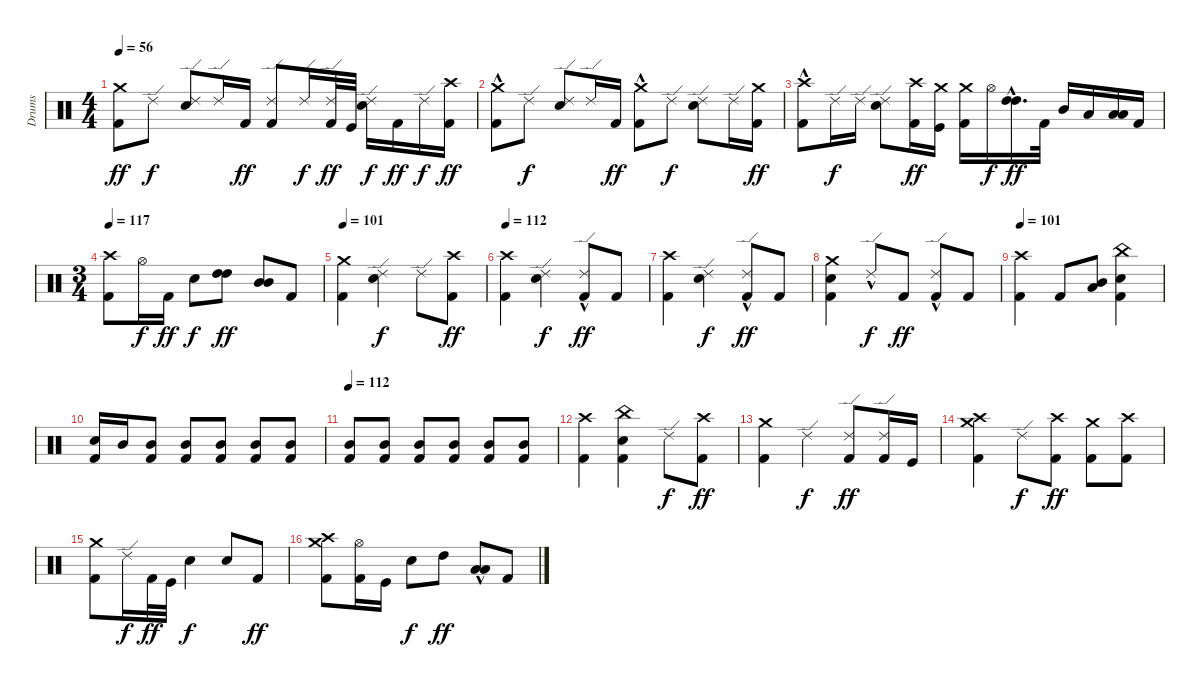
\track ("Drums" "Drums") {instrument percussion}
\staff {score}
\articulation defaults
\ts (4 4)
\tempo 56
\clef neutral
\ks c
("Crash medium (hit)" "Kick (hit) 2").8{dy ff} "Ride (edge) 2".8{dy f} ("Ride (edge) 2" "Electric Snare (hit)").8 "Ride (edge) 2".16 "Kick (hit) 2".16{dy ff} ("Ride (edge) 2" "Kick (hit) 2").8 "Ride (edge) 2".16{dy f} ("Ride (edge) 2" "Kick (hit) 2").32{dy ff} "Kick (hit)".32 ("Ride (edge) 2" "Electric Snare (hit)").16{dy f} "Kick (hit) 2".16{dy ff} "Ride (edge) 2".16{dy f} ("Crash high (hit)" "Kick (hit) 2").16{dy ff} |
("Crash medium (hit)"{hac} "Kick (hit) 2").8 "Ride (edge) 2".8{dy f} ("Ride (edge) 2" "Electric Snare (hit)").8 "Ride (edge) 2".16 "Kick (hit) 2".16{dy ff} ("Crash medium (hit)"{hac} "Kick (hit) 2").8 "Ride (edge) 2".8{dy f} ("Ride (edge) 2" "Electric Snare (hit)").8 "Ride (edge) 2".16 ("Crash medium (hit)" "Kick (hit) 2").16{dy ff} |
("Crash high (hit)"{hac} "Kick (hit) 2").8 "Ride (edge) 2".16{dy f} "Ride (edge) 2".16 ("Ride (edge) 2" "Electric Snare (hit)").8 ("Crash high (hit)" "Kick (hit) 2").16{dy ff} ("Crash medium (hit)" "Kick (hit)").16 ("Crash medium (hit)" "Kick (hit) 2").16 "Hi-Hat (open)".16{dy f} ("High Tom (hit)"{hac} "High Tom (hit)"{hac}).16{d dy ff} "Kick (hit) 2".32 "Mid Tom (hit)".16 "Low Tom (hit)".16 ("Low Tom (hit)" "Low Tom (hit)").16 "Kick (hit) 2".16 |
\ts (3 4)
\tempo 117
("Crash high (hit)" "Kick (hit) 2").8 "Hi-Hat (open)".16{dy f} "Kick (hit) 2".16{dy ff} "Electric Snare (hit)".8{dy f} ("High Tom (hit)" "High Tom (hit)").8{dy ff} ("Mid Tom (hit)" "Mid Tom (hit)").8 "Kick (hit) 2".8 |
\tempo 101
("Crash medium (hit)" "Kick (hit) 2").4 ("Ride (edge) 2" "Electric Snare (hit)").4{dy f} "Ride (edge) 2".8 ("Crash high (hit)" "Kick (hit) 2").8{dy ff} |
\tempo 112
("Crash high (hit)" "Kick (hit) 2").4 ("Ride (edge) 2" "Electric Snare (hit)").4{dy f} ("Ride (edge) 2"{hac} "Kick (hit) 2").8{dy ff} "Kick (hit) 2".8 |
("Crash high (hit)" "Kick (hit) 2").4 ("Ride (edge) 2" "Electric Snare (hit)").4{dy f} ("Ride (edge) 2"{hac} "Kick (hit) 2").8{dy ff} "Kick (hit) 2".8 |
("Crash medium (hit)" "Electric Snare (hit)" "Kick (hit) 2").4 "Ride (edge) 2"{hac}.8{dy f} "Kick (hit) 2".8{dy ff} ("Ride (edge) 2"{hac} "Kick (hit) 2").8 "Kick (hit) 2".8 |
\tempo 101
("Crash high (hit)" "Kick (hit) 2").4 "Kick (hit) 2".8 ("Low Tom (hit)" "Mid Tom (hit)").8 ("China (hit)" "Electric Snare (hit)" "Kick (hit) 2").4 |
("Electric Snare (hit)" "Kick (hit) 2").16 "Mid Tom (hit)".16 ("Mid Tom (hit)" "Kick (hit) 2").8 ("Mid Tom (hit)" "Kick (hit) 2").8 ("Mid Tom (hit)" "Kick (hit) 2").8 ("Mid Tom (hit)" "Kick (hit) 2").8 ("Mid Tom (hit)" "Kick (hit) 2").8 |
\tempo 112
("Mid Tom (hit)" "Kick (hit) 2").8 ("Mid Tom (hit)" "Kick (hit) 2").8 ("Mid Tom (hit)" "Kick (hit) 2").8 ("Mid Tom (hit)" "Kick (hit) 2").8 ("Mid Tom (hit)" "Kick (hit) 2").8 ("Mid Tom (hit)" "Kick (hit) 2").8 |
("Crash high (hit)" "Kick (hit) 2").4 ("China (hit)" "Electric Snare (hit)" "Kick (hit) 2").4 "Ride (edge) 2".8{dy f} ("Crash high (hit)" "Kick (hit) 2").8{dy ff} |
("Crash medium (hit)" "Kick (hit) 2").4 "Ride (edge) 2".4{dy f} ("Ride (edge) 2" "Kick (hit) 2").8{dy ff} ("Ride (edge) 2" "Kick (hit) 2").16 "Kick (hit)".16 |
("Crash high (hit)" "Crash medium (hit)" "Kick (hit) 2").4 "Ride (edge) 2".8{dy f} ("Crash high (hit)" "Kick (hit) 2").8{dy ff} ("Crash medium (hit)" "Kick (hit) 2").8 ("Crash high (hit)" "Kick (hit) 2").8 |
("Crash medium (hit)" "Kick (hit) 2").8 "Ride (edge) 2".16{dy f} "Kick (hit) 2".32{dy ff} "Kick (hit)".32 "Electric Snare (hit)".4{dy f} "Electric Snare (hit)".8 "Kick (hit) 2".8{dy ff} |
("Crash high (hit)" "Crash medium (hit)" "Kick (hit) 2").8 ("Hi-Hat (open)" "Kick (hit) 2").16 "Kick (hit)".16 "Electric Snare (hit)".8{dy f} "High Tom (hit)".8{dy ff} ("Low Tom (hit)"{hac} "Low Tom (hit)").8 "Kick (hit) 2".8
